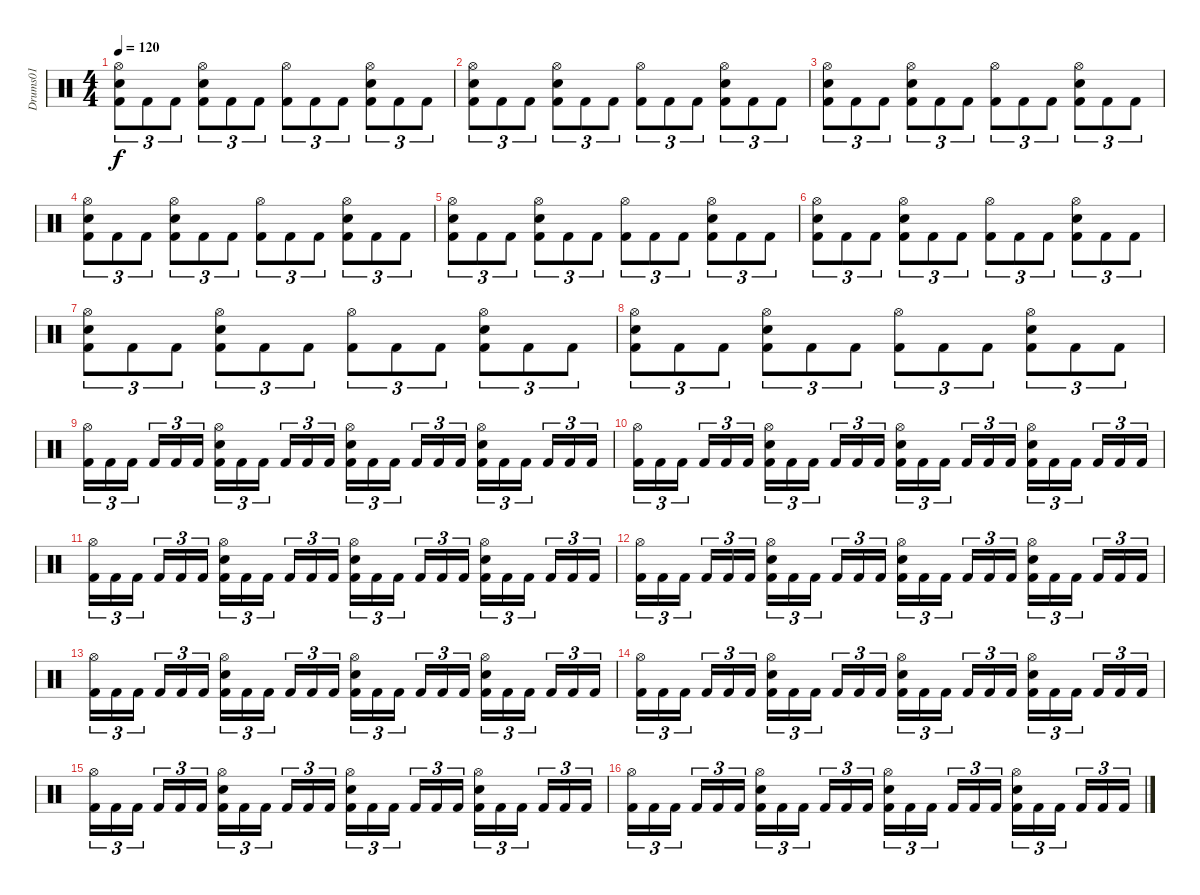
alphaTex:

\track ("Drums01" "Drums01") {instrument percussion}
\staff {score}
\articulation defaults
\ts (4 4)
\tempo 120
\clef neutral
\ks c
("Hi-Hat (open)" "Snare (hit) 2" "Kick (hit) 2").8{tu (3 2) dy f} "Kick (hit) 2".8{tu (3 2)} "Kick (hit) 2".8{tu (3 2)} ("Hi-Hat (open)" "Snare (hit) 2" "Kick (hit) 2").8{tu (3 2)} "Kick (hit) 2".8{tu (3 2)} "Kick (hit) 2".8{tu (3 2)} ("Hi-Hat (open)" "Kick (hit) 2").8{tu (3 2)} "Kick (hit) 2".8{tu (3 2)} "Kick (hit) 2".8{tu (3 2)} ("Hi-Hat (open)" "Snare (hit) 2" "Kick (hit) 2").8{tu (3 2)} "Kick (hit) 2".8{tu (3 2)} "Kick (hit) 2".8{tu (3 2)} |
("Hi-Hat (open)" "Snare (hit) 2" "Kick (hit) 2").8{tu (3 2)} "Kick (hit) 2".8{tu (3 2)} "Kick (hit) 2".8{tu (3 2)} ("Hi-Hat (open)" "Snare (hit) 2" "Kick (hit) 2").8{tu (3 2)} "Kick (hit) 2".8{tu (3 2)} "Kick (hit) 2".8{tu (3 2)} ("Hi-Hat (open)" "Kick (hit) 2").8{tu (3 2)} "Kick (hit) 2".8{tu (3 2)} "Kick (hit) 2".8{tu (3 2)} ("Hi-Hat (open)" "Snare (hit) 2" "Kick (hit) 2").8{tu (3 2)} "Kick (hit) 2".8{tu (3 2)} "Kick (hit) 2".8{tu (3 2)} |
("Hi-Hat (open)" "Snare (hit) 2" "Kick (hit) 2").8{tu (3 2)} "Kick (hit) 2".8{tu (3 2)} "Kick (hit) 2".8{tu (3 2)} ("Hi-Hat (open)" "Snare (hit) 2" "Kick (hit) 2").8{tu (3 2)} "Kick (hit) 2".8{tu (3 2)} "Kick (hit) 2".8{tu (3 2)} ("Hi-Hat (open)" "Kick (hit) 2").8{tu (3 2)} "Kick (hit) 2".8{tu (3 2)} "Kick (hit) 2".8{tu (3 2)} ("Hi-Hat (open)" "Snare (hit) 2" "Kick (hit) 2").8{tu (3 2)} "Kick (hit) 2".8{tu (3 2)} "Kick (hit) 2".8{tu (3 2)} |
("Hi-Hat (open)" "Snare (hit) 2" "Kick (hit) 2").8{tu (3 2)} "Kick (hit) 2".8{tu (3 2)} "Kick (hit) 2".8{tu (3 2)} ("Hi-Hat (open)" "Snare (hit) 2" "Kick (hit) 2").8{tu (3 2)} "Kick (hit) 2".8{tu (3 2)} "Kick (hit) 2".8{tu (3 2)} ("Hi-Hat (open)" "Kick (hit) 2").8{tu (3 2)} "Kick (hit) 2".8{tu (3 2)} "Kick (hit) 2".8{tu (3 2)} ("Hi-Hat (open)" "Snare (hit) 2" "Kick (hit) 2").8{tu (3 2)} "Kick (hit) 2".8{tu (3 2)} "Kick (hit) 2".8{tu (3 2)} |
("Hi-Hat (open)" "Snare (hit) 2" "Kick (hit) 2").8{tu (3 2)} "Kick (hit) 2".8{tu (3 2)} "Kick (hit) 2".8{tu (3 2)} ("Hi-Hat (open)" "Snare (hit) 2" "Kick (hit) 2").8{tu (3 2)} "Kick (hit) 2".8{tu (3 2)} "Kick (hit) 2".8{tu (3 2)} ("Hi-Hat (open)" "Kick (hit) 2").8{tu (3 2)} "Kick (hit) 2".8{tu (3 2)} "Kick (hit) 2".8{tu (3 2)} ("Hi-Hat (open)" "Snare (hit) 2" "Kick (hit) 2").8{tu (3 2)} "Kick (hit) 2".8{tu (3 2)} "Kick (hit) 2".8{tu (3 2)} |
("Hi-Hat (open)" "Snare (hit) 2" "Kick (hit) 2").8{tu (3 2)} "Kick (hit) 2".8{tu (3 2)} "Kick (hit) 2".8{tu (3 2)} ("Hi-Hat (open)" "Snare (hit) 2" "Kick (hit) 2").8{tu (3 2)} "Kick (hit) 2".8{tu (3 2)} "Kick (hit) 2".8{tu (3 2)} ("Hi-Hat (open)" "Kick (hit) 2").8{tu (3 2)} "Kick (hit) 2".8{tu (3 2)} "Kick (hit) 2".8{tu (3 2)} ("Hi-Hat (open)" "Snare (hit) 2" "Kick (hit) 2").8{tu (3 2)} "Kick (hit) 2".8{tu (3 2)} "Kick (hit) 2".8{tu (3 2)} |
("Hi-Hat (open)" "Snare (hit) 2" "Kick (hit) 2").8{tu (3 2)} "Kick (hit) 2".8{tu (3 2)} "Kick (hit) 2".8{tu (3 2)} ("Hi-Hat (open)" "Snare (hit) 2" "Kick (hit) 2").8{tu (3 2)} "Kick (hit) 2".8{tu (3 2)} "Kick (hit) 2".8{tu (3 2)} ("Hi-Hat (open)" "Kick (hit) 2").8{tu (3 2)} "Kick (hit) 2".8{tu (3 2)} "Kick (hit) 2".8{tu (3 2)} ("Hi-Hat (open)" "Snare (hit) 2" "Kick (hit) 2").8{tu (3 2)} "Kick (hit) 2".8{tu (3 2)} "Kick (hit) 2".8{tu (3 2)} |
("Hi-Hat (open)" "Snare (hit) 2" "Kick (hit) 2").8{tu (3 2)} "Kick (hit) 2".8{tu (3 2)} "Kick (hit) 2".8{tu (3 2)} ("Hi-Hat (open)" "Snare (hit) 2" "Kick (hit) 2").8{tu (3 2)} "Kick (hit) 2".8{tu (3 2)} "Kick (hit) 2".8{tu (3 2)} ("Hi-Hat (open)" "Kick (hit) 2").8{tu (3 2)} "Kick (hit) 2".8{tu (3 2)} "Kick (hit) 2".8{tu (3 2)} ("Hi-Hat (open)" "Snare (hit) 2" "Kick (hit) 2").8{tu (3 2)} "Kick (hit) 2".8{tu (3 2)} "Kick (hit) 2".8{tu (3 2)} |
("Hi-Hat (open)" "Kick (hit) 2").16{tu (3 2)} "Kick (hit) 2".16{tu (3 2)} "Kick (hit) 2".16{tu (3 2) beam splitsecondary} "Kick (hit) 2".16{tu (3 2)} "Kick (hit) 2".16{tu (3 2)} "Kick (hit) 2".16{tu (3 2)} ("Hi-Hat (open)" "Snare (hit) 2" "Kick (hit) 2").16{tu (3 2)} "Kick (hit) 2".16{tu (3 2)} "Kick (hit) 2".16{tu (3 2) beam splitsecondary} "Kick (hit) 2".16{tu (3 2)} "Kick (hit) 2".16{tu (3 2)} "Kick (hit) 2".16{tu (3 2)} ("Hi-Hat (open)" "Snare (hit) 2" "Kick (hit) 2").16{tu (3 2)} "Kick (hit) 2".16{tu (3 2)} "Kick (hit) 2".16{tu (3 2) beam splitsecondary} "Kick (hit) 2".16{tu (3 2)} "Kick (hit) 2".16{tu (3 2)} "Kick (hit) 2".16{tu (3 2)} ("Hi-Hat (open)" "Snare (hit) 2" "Kick (hit) 2").16{tu (3 2)} "Kick (hit) 2".16{tu (3 2)} "Kick (hit) 2".16{tu (3 2) beam splitsecondary} "Kick (hit) 2".16{tu (3 2)} "Kick (hit) 2".16{tu (3 2)} "Kick (hit) 2".16{tu (3 2)} |
("Hi-Hat (open)" "Kick (hit) 2").16{tu (3 2)} "Kick (hit) 2".16{tu (3 2)} "Kick (hit) 2".16{tu (3 2) beam splitsecondary} "Kick (hit) 2".16{tu (3 2)} "Kick (hit) 2".16{tu (3 2)} "Kick (hit) 2".16{tu (3 2)} ("Hi-Hat (open)" "Snare (hit) 2" "Kick (hit) 2").16{tu (3 2)} "Kick (hit) 2".16{tu (3 2)} "Kick (hit) 2".16{tu (3 2) beam splitsecondary} "Kick (hit) 2".16{tu (3 2)} "Kick (hit) 2".16{tu (3 2)} "Kick (hit) 2".16{tu (3 2)} ("Hi-Hat (open)" "Snare (hit) 2" "Kick (hit) 2").16{tu (3 2)} "Kick (hit) 2".16{tu (3 2)} "Kick (hit) 2".16{tu (3 2) beam splitsecondary} "Kick (hit) 2".16{tu (3 2)} "Kick (hit) 2".16{tu (3 2)} "Kick (hit) 2".16{tu (3 2)} ("Hi-Hat (open)" "Snare (hit) 2" "Kick (hit) 2").16{tu (3 2)} "Kick (hit) 2".16{tu (3 2)} "Kick (hit) 2".16{tu (3 2) beam splitsecondary} "Kick (hit) 2".16{tu (3 2)} "Kick (hit) 2".16{tu (3 2)} "Kick (hit) 2".16{tu (3 2)} |
("Hi-Hat (open)" "Kick (hit) 2").16{tu (3 2)} "Kick (hit) 2".16{tu (3 2)} "Kick (hit) 2".16{tu (3 2) beam splitsecondary} "Kick (hit) 2".16{tu (3 2)} "Kick (hit) 2".16{tu (3 2)} "Kick (hit) 2".16{tu (3 2)} ("Hi-Hat (open)" "Snare (hit) 2" "Kick (hit) 2").16{tu (3 2)} "Kick (hit) 2".16{tu (3 2)} "Kick (hit) 2".16{tu (3 2) beam splitsecondary} "Kick (hit) 2".16{tu (3 2)} "Kick (hit) 2".16{tu (3 2)} "Kick (hit) 2".16{tu (3 2)} ("Hi-Hat (open)" "Snare (hit) 2" "Kick (hit) 2").16{tu (3 2)} "Kick (hit) 2".16{tu (3 2)} "Kick (hit) 2".16{tu (3 2) beam splitsecondary} "Kick (hit) 2".16{tu (3 2)} "Kick (hit) 2".16{tu (3 2)} "Kick (hit) 2".16{tu (3 2)} ("Hi-Hat (open)" "Snare (hit) 2" "Kick (hit) 2").16{tu (3 2)} "Kick (hit) 2".16{tu (3 2)} "Kick (hit) 2".16{tu (3 2) beam splitsecondary} "Kick (hit) 2".16{tu (3 2)} "Kick (hit) 2".16{tu (3 2)} "Kick (hit) 2".16{tu (3 2)} |
("Hi-Hat (open)" "Kick (hit) 2").16{tu (3 2)} "Kick (hit) 2".16{tu (3 2)} "Kick (hit) 2".16{tu (3 2) beam splitsecondary} "Kick (hit) 2".16{tu (3 2)} "Kick (hit) 2".16{tu (3 2)} "Kick (hit) 2".16{tu (3 2)} ("Hi-Hat (open)" "Snare (hit) 2" "Kick (hit) 2").16{tu (3 2)} "Kick (hit) 2".16{tu (3 2)} "Kick (hit) 2".16{tu (3 2) beam splitsecondary} "Kick (hit) 2".16{tu (3 2)} "Kick (hit) 2".16{tu (3 2)} "Kick (hit) 2".16{tu (3 2)} ("Hi-Hat (open)" "Snare (hit) 2" "Kick (hit) 2").16{tu (3 2)} "Kick (hit) 2".16{tu (3 2)} "Kick (hit) 2".16{tu (3 2) beam splitsecondary} "Kick (hit) 2".16{tu (3 2)} "Kick (hit) 2".16{tu (3 2)} "Kick (hit) 2".16{tu (3 2)} ("Hi-Hat (open)" "Snare (hit) 2" "Kick (hit) 2").16{tu (3 2)} "Kick (hit) 2".16{tu (3 2)} "Kick (hit) 2".16{tu (3 2) beam splitsecondary} "Kick (hit) 2".16{tu (3 2)} "Kick (hit) 2".16{tu (3 2)} "Kick (hit) 2".16{tu (3 2)} |
("Hi-Hat (open)" "Kick (hit) 2").16{tu (3 2)} "Kick (hit) 2".16{tu (3 2)} "Kick (hit) 2".16{tu (3 2) beam splitsecondary} "Kick (hit) 2".16{tu (3 2)} "Kick (hit) 2".16{tu (3 2)} "Kick (hit) 2".16{tu (3 2)} ("Hi-Hat (open)" "Snare (hit) 2" "Kick (hit) 2").16{tu (3 2)} "Kick (hit) 2".16{tu (3 2)} "Kick (hit) 2".16{tu (3 2) beam splitsecondary} "Kick (hit) 2".16{tu (3 2)} "Kick (hit) 2".16{tu (3 2)} "Kick (hit) 2".16{tu (3 2)} ("Hi-Hat (open)" "Snare (hit) 2" "Kick (hit) 2").16{tu (3 2)} "Kick (hit) 2".16{tu (3 2)} "Kick (hit) 2".16{tu (3 2) beam splitsecondary} "Kick (hit) 2".16{tu (3 2)} "Kick (hit) 2".16{tu (3 2)} "Kick (hit) 2".16{tu (3 2)} ("Hi-Hat (open)" "Snare (hit) 2" "Kick (hit) 2").16{tu (3 2)} "Kick (hit) 2".16{tu (3 2)} "Kick (hit) 2".16{tu (3 2) beam splitsecondary} "Kick (hit) 2".16{tu (3 2)} "Kick (hit) 2".16{tu (3 2)} "Kick (hit) 2".16{tu (3 2)} |
("Hi-Hat (open)" "Kick (hit) 2").16{tu (3 2)} "Kick (hit) 2".16{tu (3 2)} "Kick (hit) 2".16{tu (3 2) beam splitsecondary} "Kick (hit) 2".16{tu (3 2)} "Kick (hit) 2".16{tu (3 2)} "Kick (hit) 2".16{tu (3 2)} ("Hi-Hat (open)" "Snare (hit) 2" "Kick (hit) 2").16{tu (3 2)} "Kick (hit) 2".16{tu (3 2)} "Kick (hit) 2".16{tu (3 2) beam splitsecondary} "Kick (hit) 2".16{tu (3 2)} "Kick (hit) 2".16{tu (3 2)} "Kick (hit) 2".16{tu (3 2)} ("Hi-Hat (open)" "Snare (hit) 2" "Kick (hit) 2").16{tu (3 2)} "Kick (hit) 2".16{tu (3 2)} "Kick (hit) 2".16{tu (3 2) beam splitsecondary} "Kick (hit) 2".16{tu (3 2)} "Kick (hit) 2".16{tu (3 2)} "Kick (hit) 2".16{tu (3 2)} ("Hi-Hat (open)" "Snare (hit) 2" "Kick (hit) 2").16{tu (3 2)} "Kick (hit) 2".16{tu (3 2)} "Kick (hit) 2".16{tu (3 2) beam splitsecondary} "Kick (hit) 2".16{tu (3 2)} "Kick (hit) 2".16{tu (3 2)} "Kick (hit) 2".16{tu (3 2)} |
("Hi-Hat (open)" "Kick (hit) 2").16{tu (3 2)} "Kick (hit) 2".16{tu (3 2)} "Kick (hit) 2".16{tu (3 2) beam splitsecondary} "Kick (hit) 2".16{tu (3 2)} "Kick (hit) 2".16{tu (3 2)} "Kick (hit) 2".16{tu (3 2)} ("Hi-Hat (open)" "Snare (hit) 2" "Kick (hit) 2").16{tu (3 2)} "Kick (hit) 2".16{tu (3 2)} "Kick (hit) 2".16{tu (3 2) beam splitsecondary} "Kick (hit) 2".16{tu (3 2)} "Kick (hit) 2".16{tu (3 2)} "Kick (hit) 2".16{tu (3 2)} ("Hi-Hat (open)" "Snare (hit) 2" "Kick (hit) 2").16{tu (3 2)} "Kick (hit) 2".16{tu (3 2)} "Kick (hit) 2".16{tu (3 2) beam splitsecondary} "Kick (hit) 2".16{tu (3 2)} "Kick (hit) 2".16{tu (3 2)} "Kick (hit) 2".16{tu (3 2)} ("Hi-Hat (open)" "Snare (hit) 2" "Kick (hit) 2").16{tu (3 2)} "Kick (hit) 2".16{tu (3 2)} "Kick (hit) 2".16{tu (3 2) beam splitsecondary} "Kick (hit) 2".16{tu (3 2)} "Kick (hit) 2".16{tu (3 2)} "Kick (hit) 2".16{tu (3 2)} |
("Hi-Hat (open)" "Kick (hit) 2").16{tu (3 2)} "Kick (hit) 2".16{tu (3 2)} "Kick (hit) 2".16{tu (3 2) beam splitsecondary} "Kick (hit) 2".16{tu (3 2)} "Kick (hit) 2".16{tu (3 2)} "Kick (hit) 2".16{tu (3 2)} ("Hi-Hat (open)" "Snare (hit) 2" "Kick (hit) 2").16{tu (3 2)} "Kick (hit) 2".16{tu (3 2)} "Kick (hit) 2".16{tu (3 2) beam splitsecondary} "Kick (hit) 2".16{tu (3 2)} "Kick (hit) 2".16{tu (3 2)} "Kick (hit) 2".16{tu (3 2)} ("Hi-Hat (open)" "Snare (hit) 2" "Kick (hit) 2").16{tu (3 2)} "Kick (hit) 2".16{tu (3 2)} "Kick (hit) 2".16{tu (3 2) beam splitsecondary} "Kick (hit) 2".16{tu (3 2)} "Kick (hit) 2".16{tu (3 2)} "Kick (hit) 2".16{tu (3 2)} ("Hi-Hat (open)" "Snare (hit) 2" "Kick (hit) 2").16{tu (3 2)} "Kick (hit) 2".16{tu (3 2)} "Kick (hit) 2".16{tu (3 2) beam splitsecondary} "Kick (hit) 2".16{tu (3 2)} "Kick (hit) 2".16{tu (3 2)} "Kick (hit) 2".16{tu (3 2)}
